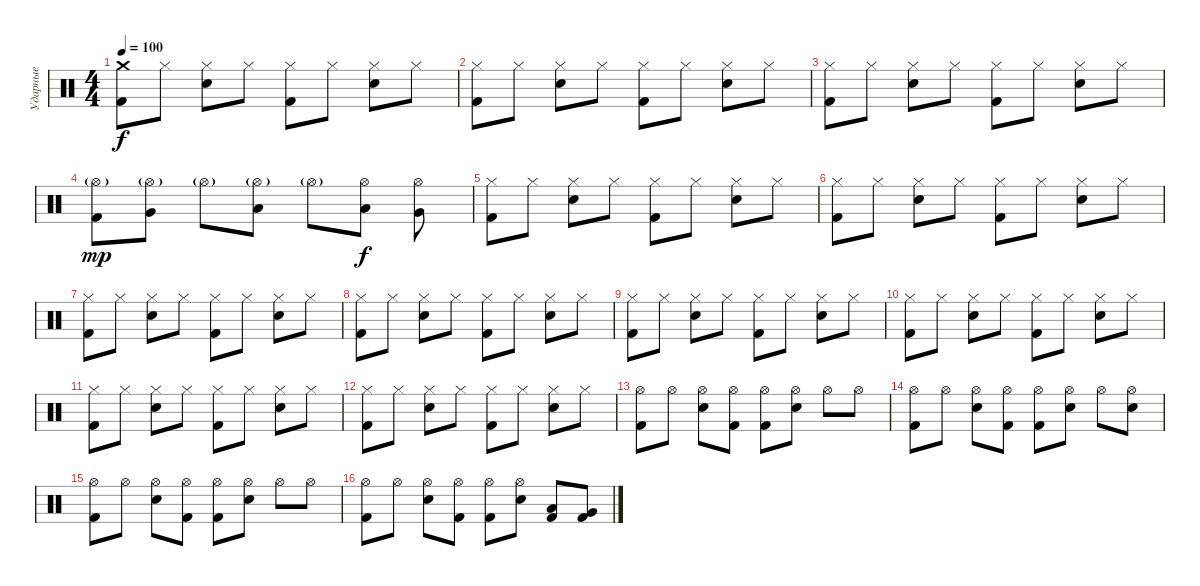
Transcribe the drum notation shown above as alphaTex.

\track ("Ударные" "Ударные") {instrument percussion}
\staff {score}
\articulation defaults
\ts (4 4)
\tempo 100
\clef neutral
\ks c
("Kick (hit) 2" "Crash medium (hit)").8{dy f} "Hi-Hat (closed)".8 ("Electric Snare (hit)" "Hi-Hat (closed)").8 "Hi-Hat (closed)".8 ("Kick (hit) 2" "Hi-Hat (closed)").8 "Hi-Hat (closed)".8 ("Electric Snare (hit)" "Hi-Hat (closed)").8 "Hi-Hat (closed)".8 |
("Kick (hit) 2" "Hi-Hat (closed)").8 "Hi-Hat (closed)".8 ("Electric Snare (hit)" "Hi-Hat (closed)").8 "Hi-Hat (closed)".8 ("Kick (hit) 2" "Hi-Hat (closed)").8 "Hi-Hat (closed)".8 ("Electric Snare (hit)" "Hi-Hat (closed)").8 "Hi-Hat (closed)".8 |
("Kick (hit) 2" "Hi-Hat (closed)").8 "Hi-Hat (closed)".8 ("Electric Snare (hit)" "Hi-Hat (closed)").8 "Hi-Hat (closed)".8 ("Kick (hit) 2" "Hi-Hat (closed)").8 "Hi-Hat (closed)".8 ("Electric Snare (hit)" "Hi-Hat (closed)").8 "Hi-Hat (closed)".8 |
("Kick (hit) 2" "Hi-Hat (open)"{g}).8{dy mp} ("Hi-Hat (open)"{g} "Very Low Tom (hit)").8 "Hi-Hat (open)"{g}.8 ("Hi-Hat (open)"{g} "Low Tom (hit)").8 "Hi-Hat (open)"{g}.8 ("Hi-Hat (open)" "Low Floor Tom (hit)").8{dy f} ("Very Low Tom (hit)" "Hi-Hat (open)").8 |
("Kick (hit) 2" "Hi-Hat (closed)").8 "Hi-Hat (closed)".8 ("Electric Snare (hit)" "Hi-Hat (closed)").8 "Hi-Hat (closed)".8 ("Kick (hit) 2" "Hi-Hat (closed)").8 "Hi-Hat (closed)".8 ("Electric Snare (hit)" "Hi-Hat (closed)").8 "Hi-Hat (closed)".8 |
("Kick (hit) 2" "Hi-Hat (closed)").8 "Hi-Hat (closed)".8 ("Electric Snare (hit)" "Hi-Hat (closed)").8 "Hi-Hat (closed)".8 ("Kick (hit) 2" "Hi-Hat (closed)").8 "Hi-Hat (closed)".8 ("Electric Snare (hit)" "Hi-Hat (closed)").8 "Hi-Hat (closed)".8 |
("Kick (hit) 2" "Hi-Hat (closed)").8 "Hi-Hat (closed)".8 ("Electric Snare (hit)" "Hi-Hat (closed)").8 "Hi-Hat (closed)".8 ("Kick (hit) 2" "Hi-Hat (closed)").8 "Hi-Hat (closed)".8 ("Electric Snare (hit)" "Hi-Hat (closed)").8 "Hi-Hat (closed)".8 |
("Kick (hit) 2" "Hi-Hat (closed)").8 "Hi-Hat (closed)".8 ("Electric Snare (hit)" "Hi-Hat (closed)").8 "Hi-Hat (closed)".8 ("Kick (hit) 2" "Hi-Hat (closed)").8 "Hi-Hat (closed)".8 ("Electric Snare (hit)" "Hi-Hat (closed)").8 "Hi-Hat (closed)".8 |
("Kick (hit) 2" "Hi-Hat (closed)").8 "Hi-Hat (closed)".8 ("Electric Snare (hit)" "Hi-Hat (closed)").8 "Hi-Hat (closed)".8 ("Kick (hit) 2" "Hi-Hat (closed)").8 "Hi-Hat (closed)".8 ("Electric Snare (hit)" "Hi-Hat (closed)").8 "Hi-Hat (closed)".8 |
("Kick (hit) 2" "Hi-Hat (closed)").8 "Hi-Hat (closed)".8 ("Electric Snare (hit)" "Hi-Hat (closed)").8 "Hi-Hat (closed)".8 ("Kick (hit) 2" "Hi-Hat (closed)").8 "Hi-Hat (closed)".8 ("Electric Snare (hit)" "Hi-Hat (closed)").8 "Hi-Hat (closed)".8 |
("Kick (hit) 2" "Hi-Hat (closed)").8 "Hi-Hat (closed)".8 ("Electric Snare (hit)" "Hi-Hat (closed)").8 "Hi-Hat (closed)".8 ("Kick (hit) 2" "Hi-Hat (closed)").8 "Hi-Hat (closed)".8 ("Electric Snare (hit)" "Hi-Hat (closed)").8 "Hi-Hat (closed)".8 |
("Kick (hit) 2" "Hi-Hat (closed)").8 "Hi-Hat (closed)".8 ("Electric Snare (hit)" "Hi-Hat (closed)").8 "Hi-Hat (closed)".8 ("Kick (hit) 2" "Hi-Hat (closed)").8 "Hi-Hat (closed)".8 ("Electric Snare (hit)" "Hi-Hat (closed)").8 "Hi-Hat (closed)".8 |
("Kick (hit) 2" "Hi-Hat (open)").8 "Hi-Hat (open)".8 ("Electric Snare (hit)" "Hi-Hat (open)").8 ("Kick (hit) 2" "Hi-Hat (open)").8 ("Kick (hit) 2" "Hi-Hat (open)").8 ("Electric Snare (hit)" "Hi-Hat (open)").8 "Hi-Hat (open)".8 "Hi-Hat (open)".8 |
("Kick (hit) 2" "Hi-Hat (open)").8 "Hi-Hat (open)".8 ("Electric Snare (hit)" "Hi-Hat (open)").8 ("Kick (hit) 2" "Hi-Hat (open)").8 ("Kick (hit) 2" "Hi-Hat (open)").8 ("Electric Snare (hit)" "Hi-Hat (open)").8 "Hi-Hat (open)".8 ("Electric Snare (hit)" "Hi-Hat (open)").8 |
("Kick (hit) 2" "Hi-Hat (open)").8 "Hi-Hat (open)".8 ("Electric Snare (hit)" "Hi-Hat (open)").8 ("Kick (hit) 2" "Hi-Hat (open)").8 ("Kick (hit) 2" "Hi-Hat (open)").8 ("Electric Snare (hit)" "Hi-Hat (open)").8 "Hi-Hat (open)".8 "Hi-Hat (open)".8 |
("Kick (hit) 2" "Hi-Hat (open)").8 "Hi-Hat (open)".8 ("Electric Snare (hit)" "Hi-Hat (open)").8 ("Kick (hit) 2" "Hi-Hat (open)").8 ("Kick (hit) 2" "Hi-Hat (open)").8 ("Electric Snare (hit)" "Hi-Hat (open)").8 ("Low Tom (hit)" "Kick (hit) 2").8 ("Very Low Tom (hit)" "Kick (hit) 2").8
